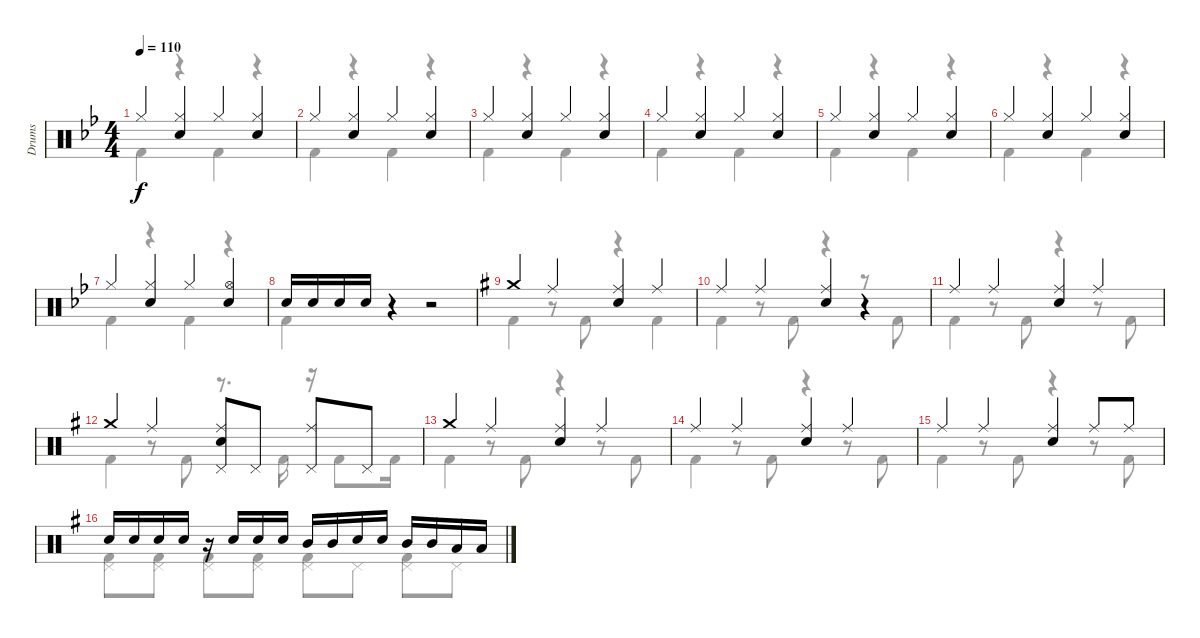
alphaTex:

\track ("Drums" "Drums") {instrument percussion}
\staff {score}
\articulation defaults
\voice
\ts (4 4)
\tempo 110
\clef neutral
\ks bb "Hi-Hat (closed)".4{dy f}
("Hi-Hat (closed)" "Snare (hit) 2").4 "Hi-Hat (closed)".4 ("Hi-Hat (closed)" "Snare (hit) 2").4 |
"Hi-Hat (closed)".4 ("Hi-Hat (closed)" "Snare (hit) 2").4 "Hi-Hat (closed)".4 ("Hi-Hat (closed)" "Snare (hit) 2").4 |
"Hi-Hat (closed)".4 ("Hi-Hat (closed)" "Snare (hit) 2").4 "Hi-Hat (closed)".4 ("Hi-Hat (closed)" "Snare (hit) 2").4 |
"Hi-Hat (closed)".4 ("Hi-Hat (closed)" "Snare (hit) 2").4 "Hi-Hat (closed)".4 ("Hi-Hat (closed)" "Snare (hit) 2").4 |
"Hi-Hat (closed)".4 ("Hi-Hat (closed)" "Snare (hit) 2").4 "Hi-Hat (closed)".4 ("Hi-Hat (closed)" "Snare (hit) 2").4 |
"Hi-Hat (closed)".4 ("Hi-Hat (closed)" "Snare (hit) 2").4 "Hi-Hat (closed)".4 ("Hi-Hat (closed)" "Snare (hit) 2").4 |
"Hi-Hat (closed)".4 ("Hi-Hat (closed)" "Snare (hit) 2").4 "Hi-Hat (closed)".4 ("Hi-Hat (open)" "Snare (hit) 2").4 |
"Snare (hit) 2".16 "Snare (hit) 2".16 "Snare (hit) 2".16 "Snare (hit) 2".16 r.4 r.2 |
\ks g "Crash medium (hit)".4 "Ride (middle)".4
("Ride (middle)" "Snare (hit) 2").4 "Ride (middle)".4 |
"Ride (middle)".4 "Ride (middle)".4 ("Ride (middle)" "Snare (hit) 2").4 r.4 |
"Ride (middle)".4 "Ride (middle)".4 ("Ride (middle)" "Snare (hit) 2").4 "Ride (middle)".4 |
"Crash medium (hit)".4 "Ride (middle)".4 ("Ride (middle)" "Snare (hit) 2" "Pedal Hi-Hat (hit)").8 "Pedal Hi-Hat (hit)".8 ("Ride (middle)" "Pedal Hi-Hat (hit)").8 "Pedal Hi-Hat (hit)".8 |
"Crash medium (hit)".4 "Ride (middle)".4 ("Ride (middle)" "Snare (hit) 2").4 "Ride (middle)".4 |
"Ride (middle)".4 "Ride (middle)".4 ("Ride (middle)" "Snare (hit) 2").4 "Ride (middle)".4 |
"Ride (middle)".4 "Ride (middle)".4 ("Ride (middle)" "Snare (hit) 2").4 "Ride (middle)".8 "Ride (middle)".8 |
"Snare (hit) 2".16 "Snare (hit) 2".16 "Snare (hit) 2".16 "Snare (hit) 2".16 r.16 "Snare (hit) 2".16 "Snare (hit) 2".16 "Snare (hit) 2".16 "Mid Tom (hit)".16 "Mid Tom (hit)".16 "Snare (hit) 2".16 "Snare (hit) 2".16 "Mid Tom (hit)".16 "Mid Tom (hit)".16 "Low Tom (hit)".16 "Low Tom (hit)".16
\voice
\clef neutral
\ottava regular
\simile none
\ks bb "Kick (hit) 2".4{dy f}
r.4 "Kick (hit) 2".4 r.4 |
"Kick (hit) 2".4 r.4 "Kick (hit) 2".4 r.4 |
"Kick (hit) 2".4 r.4 "Kick (hit) 2".4 r.4 |
"Kick (hit) 2".4 r.4 "Kick (hit) 2".4 r.4 |
"Kick (hit) 2".4 r.4 "Kick (hit) 2".4 r.4 |
"Kick (hit) 2".4 r.4 "Kick (hit) 2".4 r.4 |
"Kick (hit) 2".4 r.4 "Kick (hit) 2".4 r.4 |
"Kick (hit) 2".4 r.4 r.2 |
\ks g "Kick (hit) 2".4
r.8 "Kick (hit) 2".8 r.4 "Kick (hit) 2".4 |
"Kick (hit) 2".4 r.8 "Kick (hit) 2".8 r.4 r.8 "Kick (hit) 2".8 |
"Kick (hit) 2".4 r.8 "Kick (hit) 2".8 r.4 r.8 "Kick (hit) 2".8 |
"Kick (hit) 2".4 r.8 "Kick (hit) 2".8 r.8{d} "Kick (hit) 2".16 r.16 "Kick (hit) 2".8 "Kick (hit) 2".16 |
"Kick (hit) 2".4 r.8 "Kick (hit) 2".8 r.4 r.8 "Kick (hit) 2".8 |
"Kick (hit) 2".4 r.8 "Kick (hit) 2".8 r.4 r.8 "Kick (hit) 2".8 |
"Kick (hit) 2".4 r.8 "Kick (hit) 2".8 r.4 r.8 "Kick (hit) 2".8 |
("Pedal Hi-Hat (hit)" "Kick (hit) 2").8 ("Pedal Hi-Hat (hit)" "Kick (hit) 2").8 ("Pedal Hi-Hat (hit)" "Kick (hit) 2").8 ("Pedal Hi-Hat (hit)" "Kick (hit) 2").8 ("Pedal Hi-Hat (hit)" "Kick (hit) 2").8 "Pedal Hi-Hat (hit)".8 ("Pedal Hi-Hat (hit)" "Kick (hit) 2").8 "Pedal Hi-Hat (hit)".8
